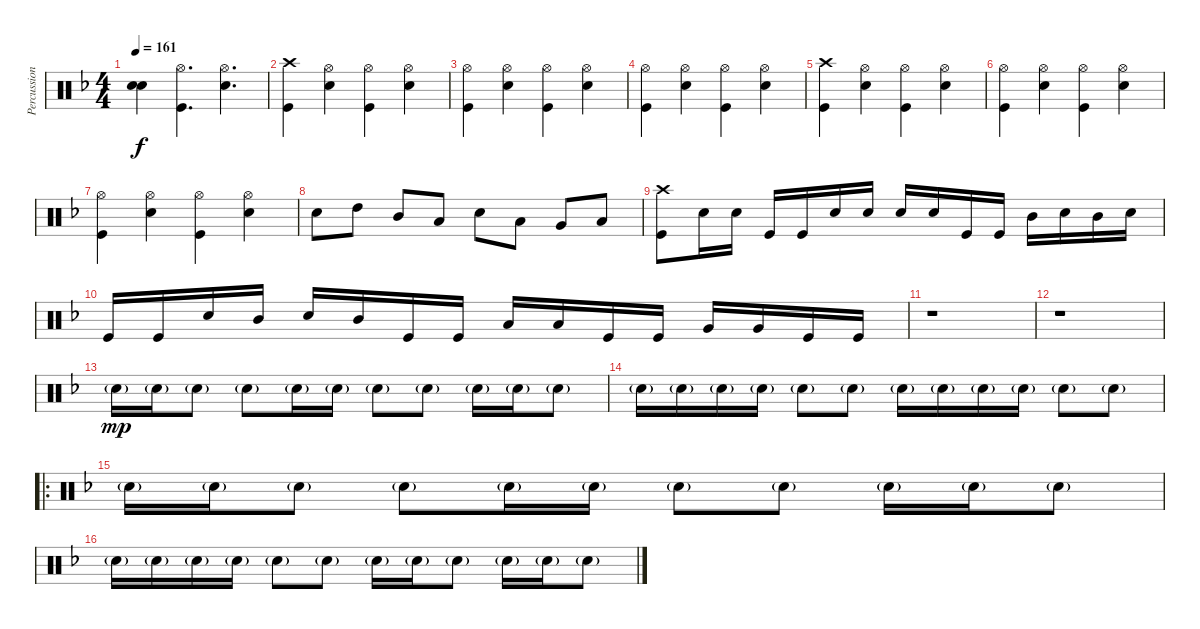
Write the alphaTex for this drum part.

\track ("Percussion" "Percussion") {instrument percussion}
\staff {score}
\articulation defaults
\ts (4 4)
\tempo 161
\clef neutral
\ks f
("Snare (hit)"{t} "Snare (hit)"{t}).4{dy f} ("Hi-Hat (open)" "Kick (hit)").4{d} ("Hi-Hat (open)" "Electric Snare (hit)").4{d} |
("Crash high (hit)" "Kick (hit)").4 ("Hi-Hat (open)" "Electric Snare (hit)").4 ("Hi-Hat (open)" "Kick (hit)").4 ("Hi-Hat (open)" "Electric Snare (hit)").4 |
("Hi-Hat (open)" "Kick (hit)").4 ("Hi-Hat (open)" "Electric Snare (hit)").4 ("Hi-Hat (open)" "Kick (hit)").4 ("Hi-Hat (open)" "Electric Snare (hit)").4 |
("Hi-Hat (open)" "Kick (hit)").4 ("Hi-Hat (open)" "Electric Snare (hit)").4 ("Hi-Hat (open)" "Kick (hit)").4 ("Hi-Hat (open)" "Electric Snare (hit)").4 |
("Crash high (hit)" "Kick (hit)").4 ("Hi-Hat (open)" "Electric Snare (hit)").4 ("Hi-Hat (open)" "Kick (hit)").4 ("Hi-Hat (open)" "Electric Snare (hit)").4 |
("Hi-Hat (open)" "Kick (hit)").4 ("Hi-Hat (open)" "Electric Snare (hit)").4 ("Hi-Hat (open)" "Kick (hit)").4 ("Hi-Hat (open)" "Electric Snare (hit)").4 |
("Hi-Hat (open)" "Kick (hit)").4 ("Hi-Hat (open)" "Electric Snare (hit)").4 ("Hi-Hat (open)" "Kick (hit)").4 ("Hi-Hat (open)" "Electric Snare (hit)").4 |
"Electric Snare (hit)".8 "High Tom (hit)".8 "Mid Tom (hit)".8 "Low Tom (hit)".8 "Electric Snare (hit)".8 "Low Tom (hit)".8 "Very Low Tom (hit)".8 "Low Floor Tom (hit)".8 |
("Crash high (hit)" "Kick (hit)").8 "Electric Snare (hit)".16 "Electric Snare (hit)".16 "Kick (hit)".16 "Kick (hit)".16 "Electric Snare (hit)".16 "Electric Snare (hit)".16 "Electric Snare (hit)".16 "Electric Snare (hit)".16 "Kick (hit)".16 "Kick (hit)".16 "Mid Tom (hit)".16 "Electric Snare (hit)".16 "Mid Tom (hit)".16 "Electric Snare (hit)".16 |
"Kick (hit)".16 "Kick (hit)".16 "Electric Snare (hit)".16 "Mid Tom (hit)".16 "Electric Snare (hit)".16 "Mid Tom (hit)".16 "Kick (hit)".16 "Kick (hit)".16 "Low Tom (hit)".16 "Low Tom (hit)".16 "Kick (hit)".16 "Kick (hit)".16 "Very Low Tom (hit)".16 "Very Low Tom (hit)".16 "Kick (hit)".16 "Kick (hit)".16 |
r.1 |
r.1 |
"Electric Snare (hit)"{g}.16{dy mp} "Electric Snare (hit)"{g}.16 "Electric Snare (hit)"{g}.8 "Electric Snare (hit)"{g}.8 "Electric Snare (hit)"{g}.16 "Electric Snare (hit)"{g}.16 "Electric Snare (hit)"{g}.8 "Electric Snare (hit)"{g}.8 "Electric Snare (hit)"{g}.16 "Electric Snare (hit)"{g}.16 "Electric Snare (hit)"{g}.8 |
"Electric Snare (hit)"{g}.16 "Electric Snare (hit)"{g}.16 "Electric Snare (hit)"{g}.16 "Electric Snare (hit)"{g}.16 "Electric Snare (hit)"{g}.8 "Electric Snare (hit)"{g}.8 "Electric Snare (hit)"{g}.16 "Electric Snare (hit)"{g}.16 "Electric Snare (hit)"{g}.16 "Electric Snare (hit)"{g}.16 "Electric Snare (hit)"{g}.8 "Electric Snare (hit)"{g}.8 |
\ro "Electric Snare (hit)"{g}.16 "Electric Snare (hit)"{g}.16 "Electric Snare (hit)"{g}.8 "Electric Snare (hit)"{g}.8 "Electric Snare (hit)"{g}.16 "Electric Snare (hit)"{g}.16 "Electric Snare (hit)"{g}.8 "Electric Snare (hit)"{g}.8 "Electric Snare (hit)"{g}.16 "Electric Snare (hit)"{g}.16 "Electric Snare (hit)"{g}.8
|
"Electric Snare (hit)"{g}.16 "Electric Snare (hit)"{g}.16 "Electric Snare (hit)"{g}.16 "Electric Snare (hit)"{g}.16 "Electric Snare (hit)"{g}.8 "Electric Snare (hit)"{g}.8 "Electric Snare (hit)"{g}.16 "Electric Snare (hit)"{g}.16 "Electric Snare (hit)"{g}.8 "Electric Snare (hit)"{g}.16 "Electric Snare (hit)"{g}.16 "Electric Snare (hit)"{g}.8
